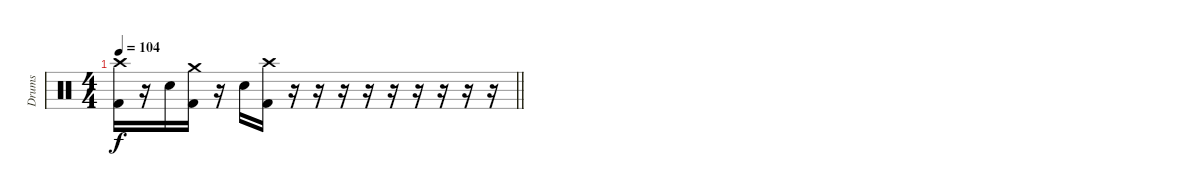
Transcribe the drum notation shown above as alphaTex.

\track ("Drums" "Drums") {instrument percussion}
\staff {score}
\articulation defaults
\ts (4 4)
\tempo 104
\clef neutral
\barLineRight lightlight
\ks c
("Crash high (hit)" "Kick (hit) 2").16{dy f} r.16 "Snare (hit) 2".16 ("Crash medium (hit)" "Kick (hit) 2").16 r.16 "Snare (hit) 2".16 ("Crash high (hit)" "Kick (hit) 2").16 r.16 r.16 r.16 r.16 r.16 r.16 r.16 r.16 r.16
